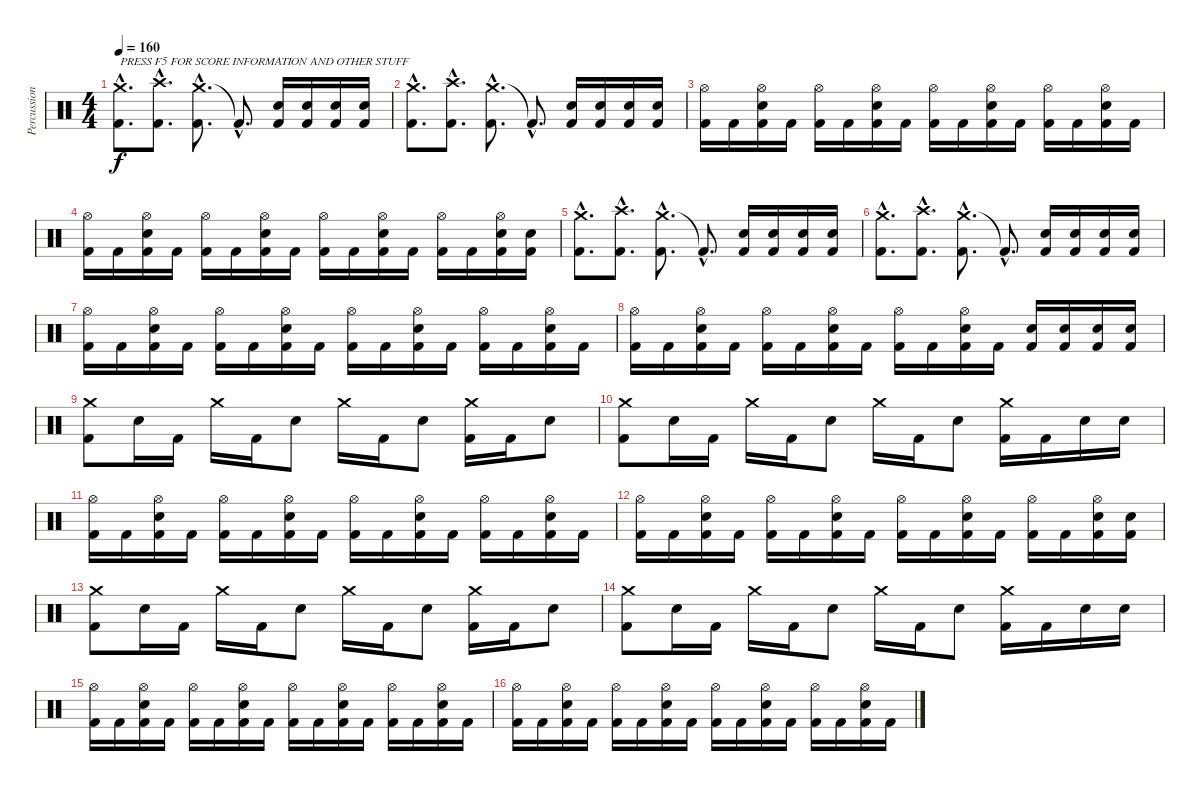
\track ("Percussion" "Percussion") {instrument percussion}
\staff {score}
\articulation defaults
\ts (4 4)
\tempo 160
\clef neutral
\ks c
("Crash medium (hit)"{hac} "Kick (hit) 2"{hac}).8{d txt "PRESS F5 FOR SCORE INFORMATION AND OTHER STUFF" dy f} ("Crash high (hit)"{hac} "Kick (hit) 2"{hac}).8{d} ("Crash medium (hit)"{hac} "Kick (hit) 2"{hac}).8{d} "Kick (hit) 2"{hac t}.8{d} ("Electric Snare (hit)" "Kick (hit) 2").16 ("Electric Snare (hit)" "Kick (hit) 2").16 ("Electric Snare (hit)" "Kick (hit) 2").16 ("Electric Snare (hit)" "Kick (hit) 2").16 |
("Crash medium (hit)"{hac} "Kick (hit) 2"{hac}).8{d} ("Crash high (hit)"{hac} "Kick (hit) 2"{hac}).8{d} ("Crash medium (hit)"{hac} "Kick (hit) 2"{hac}).8{d} "Kick (hit) 2"{hac t}.8{d} ("Electric Snare (hit)" "Kick (hit) 2").16 ("Electric Snare (hit)" "Kick (hit) 2").16 ("Electric Snare (hit)" "Kick (hit) 2").16 ("Electric Snare (hit)" "Kick (hit) 2").16 |
("Hi-Hat (open)" "Kick (hit) 2").16 "Kick (hit) 2".16 ("Hi-Hat (open)" "Electric Snare (hit)" "Kick (hit) 2").16 "Kick (hit) 2".16 ("Hi-Hat (open)" "Kick (hit) 2").16 "Kick (hit) 2".16 ("Hi-Hat (open)" "Electric Snare (hit)" "Kick (hit) 2").16 "Kick (hit) 2".16 ("Hi-Hat (open)" "Kick (hit) 2").16 "Kick (hit) 2".16 ("Hi-Hat (open)" "Electric Snare (hit)" "Kick (hit) 2").16 "Kick (hit) 2".16 ("Hi-Hat (open)" "Kick (hit) 2").16 "Kick (hit) 2".16 ("Hi-Hat (open)" "Electric Snare (hit)" "Kick (hit) 2").16 "Kick (hit) 2".16 |
("Hi-Hat (open)" "Kick (hit) 2").16 "Kick (hit) 2".16 ("Hi-Hat (open)" "Electric Snare (hit)" "Kick (hit) 2").16 "Kick (hit) 2".16 ("Hi-Hat (open)" "Kick (hit) 2").16 "Kick (hit) 2".16 ("Hi-Hat (open)" "Electric Snare (hit)" "Kick (hit) 2").16 "Kick (hit) 2".16 ("Hi-Hat (open)" "Kick (hit) 2").16 "Kick (hit) 2".16 ("Hi-Hat (open)" "Electric Snare (hit)" "Kick (hit) 2").16 "Kick (hit) 2".16 ("Hi-Hat (open)" "Kick (hit) 2").16 "Kick (hit) 2".16 ("Hi-Hat (open)" "Electric Snare (hit)" "Kick (hit) 2").16 ("Electric Snare (hit)" "Kick (hit) 2").16 |
("Crash medium (hit)"{hac} "Kick (hit) 2"{hac}).8{d} ("Crash high (hit)"{hac} "Kick (hit) 2"{hac}).8{d} ("Crash medium (hit)"{hac} "Kick (hit) 2"{hac}).8{d} "Kick (hit) 2"{hac t}.8{d} ("Electric Snare (hit)" "Kick (hit) 2").16 ("Electric Snare (hit)" "Kick (hit) 2").16 ("Electric Snare (hit)" "Kick (hit) 2").16 ("Electric Snare (hit)" "Kick (hit) 2").16 |
("Crash medium (hit)"{hac} "Kick (hit) 2"{hac}).8{d} ("Crash high (hit)"{hac} "Kick (hit) 2"{hac}).8{d} ("Crash medium (hit)"{hac} "Kick (hit) 2"{hac}).8{d} "Kick (hit) 2"{hac t}.8{d} ("Electric Snare (hit)" "Kick (hit) 2").16 ("Electric Snare (hit)" "Kick (hit) 2").16 ("Electric Snare (hit)" "Kick (hit) 2").16 ("Electric Snare (hit)" "Kick (hit) 2").16 |
("Hi-Hat (open)" "Kick (hit) 2").16 "Kick (hit) 2".16 ("Hi-Hat (open)" "Electric Snare (hit)" "Kick (hit) 2").16 "Kick (hit) 2".16 ("Hi-Hat (open)" "Kick (hit) 2").16 "Kick (hit) 2".16 ("Hi-Hat (open)" "Electric Snare (hit)" "Kick (hit) 2").16 "Kick (hit) 2".16 ("Hi-Hat (open)" "Kick (hit) 2").16 "Kick (hit) 2".16 ("Hi-Hat (open)" "Electric Snare (hit)" "Kick (hit) 2").16 "Kick (hit) 2".16 ("Hi-Hat (open)" "Kick (hit) 2").16 "Kick (hit) 2".16 ("Hi-Hat (open)" "Electric Snare (hit)" "Kick (hit) 2").16 "Kick (hit) 2".16 |
("Hi-Hat (open)" "Kick (hit) 2").16 "Kick (hit) 2".16 ("Hi-Hat (open)" "Electric Snare (hit)" "Kick (hit) 2").16 "Kick (hit) 2".16 ("Hi-Hat (open)" "Kick (hit) 2").16 "Kick (hit) 2".16 ("Hi-Hat (open)" "Electric Snare (hit)" "Kick (hit) 2").16 "Kick (hit) 2".16 ("Hi-Hat (open)" "Kick (hit) 2").16 "Kick (hit) 2".16 ("Hi-Hat (open)" "Electric Snare (hit)" "Kick (hit) 2").16 "Kick (hit) 2".16 ("Electric Snare (hit)" "Kick (hit) 2").16 ("Electric Snare (hit)" "Kick (hit) 2").16 ("Electric Snare (hit)" "Kick (hit) 2").16 ("Electric Snare (hit)" "Kick (hit) 2").16 |
("Crash medium (hit)" "Kick (hit) 2").8 "Electric Snare (hit)".16 "Kick (hit) 2".16 "Crash medium (hit)".16 "Kick (hit) 2".16 "Electric Snare (hit)".8 "Crash medium (hit)".16 "Kick (hit) 2".16 "Electric Snare (hit)".8 ("Crash medium (hit)" "Kick (hit) 2").16 "Kick (hit) 2".16 "Electric Snare (hit)".8 |
("Crash medium (hit)" "Kick (hit) 2").8 "Electric Snare (hit)".16 "Kick (hit) 2".16 "Crash medium (hit)".16 "Kick (hit) 2".16 "Electric Snare (hit)".8 "Crash medium (hit)".16 "Kick (hit) 2".16 "Electric Snare (hit)".8 ("Crash medium (hit)" "Kick (hit) 2").16 "Kick (hit) 2".16 "Electric Snare (hit)".16 "Electric Snare (hit)".16 |
("Hi-Hat (open)" "Kick (hit) 2").16 "Kick (hit) 2".16 ("Hi-Hat (open)" "Electric Snare (hit)" "Kick (hit) 2").16 "Kick (hit) 2".16 ("Hi-Hat (open)" "Kick (hit) 2").16 "Kick (hit) 2".16 ("Hi-Hat (open)" "Electric Snare (hit)" "Kick (hit) 2").16 "Kick (hit) 2".16 ("Hi-Hat (open)" "Kick (hit) 2").16 "Kick (hit) 2".16 ("Hi-Hat (open)" "Electric Snare (hit)" "Kick (hit) 2").16 "Kick (hit) 2".16 ("Hi-Hat (open)" "Kick (hit) 2").16 "Kick (hit) 2".16 ("Hi-Hat (open)" "Electric Snare (hit)" "Kick (hit) 2").16 "Kick (hit) 2".16 |
("Hi-Hat (open)" "Kick (hit) 2").16 "Kick (hit) 2".16 ("Hi-Hat (open)" "Electric Snare (hit)" "Kick (hit) 2").16 "Kick (hit) 2".16 ("Hi-Hat (open)" "Kick (hit) 2").16 "Kick (hit) 2".16 ("Hi-Hat (open)" "Electric Snare (hit)" "Kick (hit) 2").16 "Kick (hit) 2".16 ("Hi-Hat (open)" "Kick (hit) 2").16 "Kick (hit) 2".16 ("Hi-Hat (open)" "Electric Snare (hit)" "Kick (hit) 2").16 "Kick (hit) 2".16 ("Hi-Hat (open)" "Kick (hit) 2").16 "Kick (hit) 2".16 ("Hi-Hat (open)" "Electric Snare (hit)" "Kick (hit) 2").16 ("Electric Snare (hit)" "Kick (hit) 2").16 |
("Crash medium (hit)" "Kick (hit) 2").8 "Electric Snare (hit)".16 "Kick (hit) 2".16 "Crash medium (hit)".16 "Kick (hit) 2".16 "Electric Snare (hit)".8 "Crash medium (hit)".16 "Kick (hit) 2".16 "Electric Snare (hit)".8 ("Crash medium (hit)" "Kick (hit) 2").16 "Kick (hit) 2".16 "Electric Snare (hit)".8 |
("Crash medium (hit)" "Kick (hit) 2").8 "Electric Snare (hit)".16 "Kick (hit) 2".16 "Crash medium (hit)".16 "Kick (hit) 2".16 "Electric Snare (hit)".8 "Crash medium (hit)".16 "Kick (hit) 2".16 "Electric Snare (hit)".8 ("Crash medium (hit)" "Kick (hit) 2").16 "Kick (hit) 2".16 "Electric Snare (hit)".16 "Electric Snare (hit)".16 |
("Hi-Hat (open)" "Kick (hit) 2").16 "Kick (hit) 2".16 ("Hi-Hat (open)" "Electric Snare (hit)" "Kick (hit) 2").16 "Kick (hit) 2".16 ("Hi-Hat (open)" "Kick (hit) 2").16 "Kick (hit) 2".16 ("Hi-Hat (open)" "Electric Snare (hit)" "Kick (hit) 2").16 "Kick (hit) 2".16 ("Hi-Hat (open)" "Kick (hit) 2").16 "Kick (hit) 2".16 ("Hi-Hat (open)" "Electric Snare (hit)" "Kick (hit) 2").16 "Kick (hit) 2".16 ("Hi-Hat (open)" "Kick (hit) 2").16 "Kick (hit) 2".16 ("Hi-Hat (open)" "Electric Snare (hit)" "Kick (hit) 2").16 "Kick (hit) 2".16 |
("Hi-Hat (open)" "Kick (hit) 2").16 "Kick (hit) 2".16 ("Hi-Hat (open)" "Electric Snare (hit)" "Kick (hit) 2").16 "Kick (hit) 2".16 ("Hi-Hat (open)" "Kick (hit) 2").16 "Kick (hit) 2".16 ("Hi-Hat (open)" "Electric Snare (hit)" "Kick (hit) 2").16 "Kick (hit) 2".16 ("Hi-Hat (open)" "Kick (hit) 2").16 "Kick (hit) 2".16 ("Hi-Hat (open)" "Electric Snare (hit)" "Kick (hit) 2").16 "Kick (hit) 2".16 ("Hi-Hat (open)" "Kick (hit) 2").16 "Kick (hit) 2".16 ("Hi-Hat (open)" "Electric Snare (hit)" "Kick (hit) 2").16 "Kick (hit) 2".16
